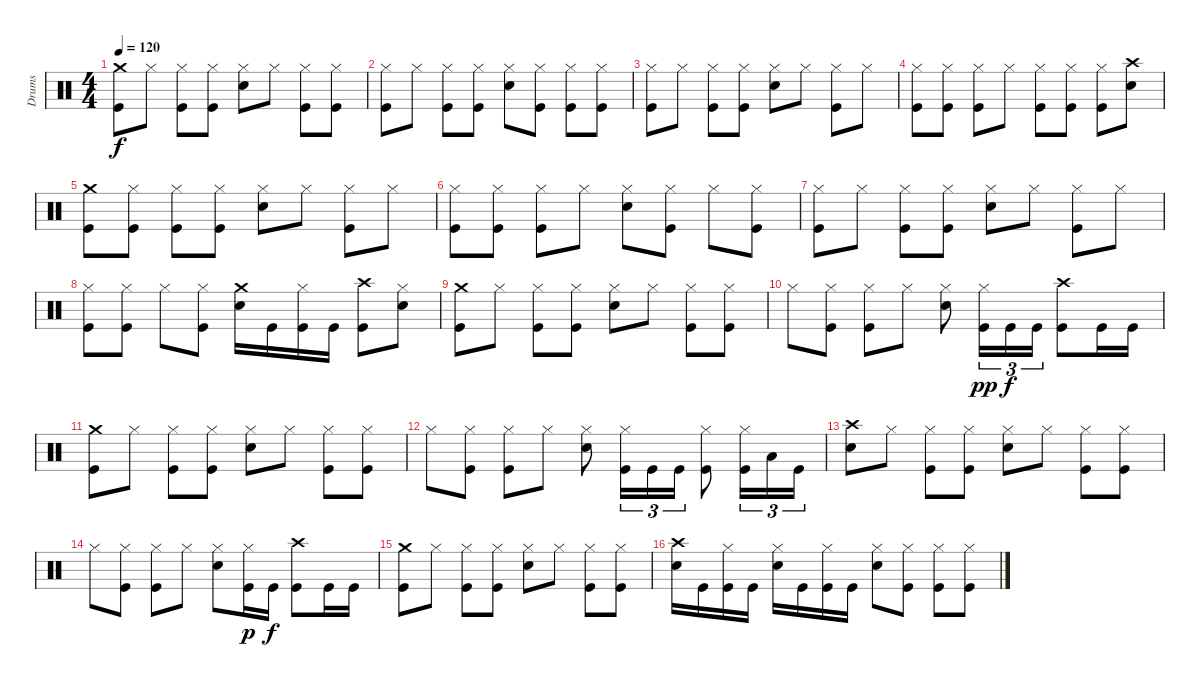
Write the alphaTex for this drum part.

\track ("Drums" "Drums") {instrument percussion}
\staff {score}
\articulation defaults
\ts (4 4)
\tempo 120
\clef neutral
\ks c
("Kick (hit)" "Crash medium (hit)").8{dy f} "Hi-Hat (closed)".8 ("Kick (hit)" "Hi-Hat (closed)").8 ("Kick (hit)" "Hi-Hat (closed)").8 ("Electric Snare (hit)" "Hi-Hat (closed)").8 "Hi-Hat (closed)".8 ("Kick (hit)" "Hi-Hat (closed)").8 ("Kick (hit)" "Hi-Hat (closed)").8 |
("Kick (hit)" "Hi-Hat (closed)").8 "Hi-Hat (closed)".8 ("Kick (hit)" "Hi-Hat (closed)").8 ("Kick (hit)" "Hi-Hat (closed)").8 ("Electric Snare (hit)" "Hi-Hat (closed)").8 ("Kick (hit)" "Hi-Hat (closed)").8 ("Kick (hit)" "Hi-Hat (closed)").8 ("Kick (hit)" "Hi-Hat (closed)").8 |
("Kick (hit)" "Hi-Hat (closed)").8 "Hi-Hat (closed)".8 ("Kick (hit)" "Hi-Hat (closed)").8 ("Kick (hit)" "Hi-Hat (closed)").8 ("Electric Snare (hit)" "Hi-Hat (closed)").8 "Hi-Hat (closed)".8 ("Kick (hit)" "Hi-Hat (closed)").8 "Hi-Hat (closed)".8 |
("Kick (hit)" "Hi-Hat (closed)").8 ("Kick (hit)" "Hi-Hat (closed)").8 ("Kick (hit)" "Hi-Hat (closed)").8 "Hi-Hat (closed)".8 ("Kick (hit)" "Hi-Hat (closed)").8 ("Kick (hit)" "Hi-Hat (closed)").8 ("Kick (hit)" "Hi-Hat (closed)").8 ("Electric Snare (hit)" "Crash high (hit)").8 |
("Kick (hit)" "Crash medium (hit)").8 ("Kick (hit)" "Hi-Hat (closed)").8 ("Kick (hit)" "Hi-Hat (closed)").8 ("Kick (hit)" "Hi-Hat (closed)").8 ("Electric Snare (hit)" "Hi-Hat (closed)").8 "Hi-Hat (closed)".8 ("Kick (hit)" "Hi-Hat (closed)").8 "Hi-Hat (closed)".8 |
("Kick (hit)" "Hi-Hat (closed)").8 ("Kick (hit)" "Hi-Hat (closed)").8 ("Kick (hit)" "Hi-Hat (closed)").8 "Hi-Hat (closed)".8 ("Electric Snare (hit)" "Hi-Hat (closed)").8 ("Kick (hit)" "Hi-Hat (closed)").8 "Hi-Hat (closed)".8 ("Kick (hit)" "Hi-Hat (closed)").8 |
("Kick (hit)" "Hi-Hat (closed)").8 "Hi-Hat (closed)".8 ("Kick (hit)" "Hi-Hat (closed)").8 ("Kick (hit)" "Hi-Hat (closed)").8 ("Electric Snare (hit)" "Hi-Hat (closed)").8 "Hi-Hat (closed)".8 ("Kick (hit)" "Hi-Hat (closed)").8 "Hi-Hat (closed)".8 |
("Kick (hit)" "Hi-Hat (closed)").8 ("Kick (hit)" "Hi-Hat (closed)").8 "Hi-Hat (closed)".8 ("Kick (hit)" "Hi-Hat (closed)").8 ("Electric Snare (hit)" "Crash medium (hit)").16 "Kick (hit)".16 ("Kick (hit)" "Hi-Hat (closed)").16 "Kick (hit)".16 ("Kick (hit)" "Crash high (hit)").8 ("Electric Snare (hit)" "Hi-Hat (closed)").8 |
("Kick (hit)" "Crash medium (hit)").8 "Hi-Hat (closed)".8 ("Kick (hit)" "Hi-Hat (closed)").8 ("Kick (hit)" "Hi-Hat (closed)").8 ("Electric Snare (hit)" "Hi-Hat (closed)").8 "Hi-Hat (closed)".8 ("Kick (hit)" "Hi-Hat (closed)").8 ("Kick (hit)" "Hi-Hat (closed)").8 |
"Hi-Hat (closed)".8 ("Kick (hit)" "Hi-Hat (closed)").8 ("Kick (hit)" "Hi-Hat (closed)").8 "Hi-Hat (closed)".8 ("Electric Snare (hit)" "Hi-Hat (closed)").8 ("Kick (hit)" "Hi-Hat (closed)").16{tu (3 2) dy pp} "Kick (hit)".16{tu (3 2) dy f} "Kick (hit)".16{tu (3 2)} ("Kick (hit)" "Crash high (hit)").8 "Kick (hit)".16 "Kick (hit)".16 |
("Kick (hit)" "Crash medium (hit)").8 "Hi-Hat (closed)".8 ("Kick (hit)" "Hi-Hat (closed)").8 ("Kick (hit)" "Hi-Hat (closed)").8 ("Electric Snare (hit)" "Hi-Hat (closed)").8 "Hi-Hat (closed)".8 ("Kick (hit)" "Hi-Hat (closed)").8 ("Kick (hit)" "Hi-Hat (closed)").8 |
"Hi-Hat (closed)".8 ("Kick (hit)" "Hi-Hat (closed)").8 ("Kick (hit)" "Hi-Hat (closed)").8 "Hi-Hat (closed)".8 ("Electric Snare (hit)" "Hi-Hat (closed)").8 ("Kick (hit)" "Hi-Hat (closed)").16{tu (3 2)} "Kick (hit)".16{tu (3 2)} "Kick (hit)".16{tu (3 2)} ("Kick (hit)" "Hi-Hat (closed)").8 ("Kick (hit)" "Hi-Hat (closed)").16{tu (3 2)} "Low Floor Tom (hit)".16{tu (3 2)} "Kick (hit)".16{tu (3 2)} |
("Electric Snare (hit)" "Crash high (hit)").8 "Hi-Hat (closed)".8 ("Kick (hit)" "Hi-Hat (closed)").8 ("Kick (hit)" "Hi-Hat (closed)").8 ("Electric Snare (hit)" "Hi-Hat (closed)").8 "Hi-Hat (closed)".8 ("Kick (hit)" "Hi-Hat (closed)").8 ("Kick (hit)" "Hi-Hat (closed)").8 |
"Hi-Hat (closed)".8 ("Kick (hit)" "Hi-Hat (closed)").8 ("Kick (hit)" "Hi-Hat (closed)").8 "Hi-Hat (closed)".8 ("Electric Snare (hit)" "Hi-Hat (closed)").8 ("Kick (hit)" "Hi-Hat (closed)").16{dy p} "Kick (hit)".16{dy f} ("Kick (hit)" "Crash high (hit)").8 "Kick (hit)".16 "Kick (hit)".16 |
("Kick (hit)" "Crash medium (hit)").8 "Hi-Hat (closed)".8 ("Kick (hit)" "Hi-Hat (closed)").8 ("Kick (hit)" "Hi-Hat (closed)").8 ("Electric Snare (hit)" "Hi-Hat (closed)").8 "Hi-Hat (closed)".8 ("Kick (hit)" "Hi-Hat (closed)").8 ("Kick (hit)" "Hi-Hat (closed)").8 |
("Electric Snare (hit)" "Crash high (hit)").16 "Kick (hit)".16 ("Kick (hit)" "Hi-Hat (closed)").16 "Kick (hit)".16 ("Electric Snare (hit)" "Hi-Hat (closed)").16 "Kick (hit)".16 ("Kick (hit)" "Hi-Hat (closed)").16 "Kick (hit)".16 ("Electric Snare (hit)" "Hi-Hat (closed)").8 ("Kick (hit)" "Hi-Hat (closed)").8 ("Kick (hit)" "Hi-Hat (closed)").8 ("Kick (hit)" "Hi-Hat (closed)").8
